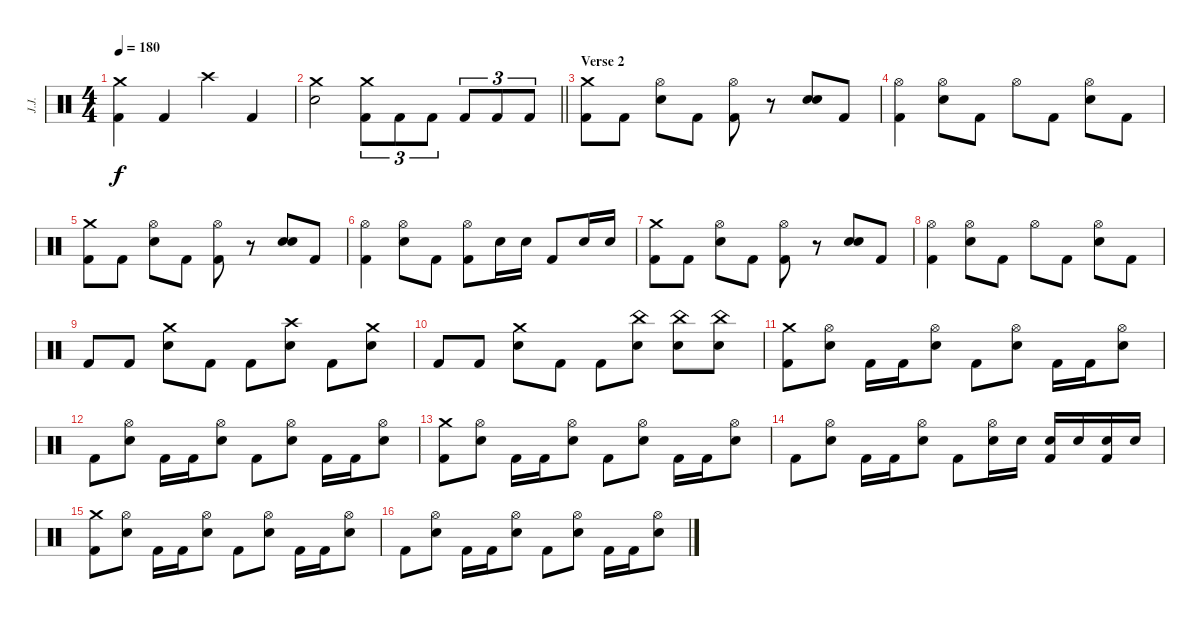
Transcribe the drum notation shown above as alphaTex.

\track ("J.J." "J.J.") {instrument percussion}
\staff {score}
\articulation defaults
\ts (4 4)
\tempo 180
\clef neutral
\ks c
("Crash medium (hit)" "Kick (hit) 2").4{dy f} "Kick (hit) 2".4 "Crash high (hit)".4 "Kick (hit) 2".4 |
\barLineRight lightlight
("Crash medium (hit)" "Electric Snare (hit)").2 ("Crash medium (hit)" "Kick (hit) 2").8{tu (3 2)} "Kick (hit) 2".8{tu (3 2)} "Kick (hit) 2".8{tu (3 2)} "Kick (hit) 2".8{tu (3 2)} "Kick (hit) 2".8{tu (3 2)} "Kick (hit) 2".8{tu (3 2)} |
\section ("" "Verse 2")
("Crash medium (hit)" "Kick (hit) 2").8 "Kick (hit) 2".8 ("Hi-Hat (open)" "Electric Snare (hit)").8 "Kick (hit) 2".8 ("Hi-Hat (open)" "Kick (hit) 2").8 r.8 ("Electric Snare (hit)" "Electric Snare (hit)").8 "Kick (hit) 2".8 |
("Hi-Hat (open)" "Kick (hit) 2").4 ("Hi-Hat (open)" "Electric Snare (hit)").8 "Kick (hit) 2".8 "Hi-Hat (open)".8 "Kick (hit) 2".8 ("Hi-Hat (open)" "Electric Snare (hit)").8 "Kick (hit) 2".8 |
("Crash medium (hit)" "Kick (hit) 2").8 "Kick (hit) 2".8 ("Hi-Hat (open)" "Electric Snare (hit)").8 "Kick (hit) 2".8 ("Hi-Hat (open)" "Kick (hit) 2").8 r.8 ("Electric Snare (hit)" "Electric Snare (hit)").8 "Kick (hit) 2".8 |
("Hi-Hat (open)" "Kick (hit) 2").4 ("Hi-Hat (open)" "Electric Snare (hit)").8 "Kick (hit) 2".8 ("Hi-Hat (open)" "Kick (hit) 2").8 "Electric Snare (hit)".16 "Electric Snare (hit)".16 "Kick (hit) 2".8 "Electric Snare (hit)".16 "Electric Snare (hit)".16 |
("Crash medium (hit)" "Kick (hit) 2").8 "Kick (hit) 2".8 ("Hi-Hat (open)" "Electric Snare (hit)").8 "Kick (hit) 2".8 ("Hi-Hat (open)" "Kick (hit) 2").8 r.8 ("Electric Snare (hit)" "Electric Snare (hit)").8 "Kick (hit) 2".8 |
("Hi-Hat (open)" "Kick (hit) 2").4 ("Hi-Hat (open)" "Electric Snare (hit)").8 "Kick (hit) 2".8 "Hi-Hat (open)".8 "Kick (hit) 2".8 ("Hi-Hat (open)" "Electric Snare (hit)").8 "Kick (hit) 2".8 |
"Kick (hit) 2".8 "Kick (hit) 2".8 ("Crash medium (hit)" "Electric Snare (hit)").8 "Kick (hit) 2".8 "Kick (hit) 2".8 ("Crash high (hit)" "Electric Snare (hit)").8 "Kick (hit) 2".8 ("Crash medium (hit)" "Electric Snare (hit)").8 |
"Kick (hit) 2".8 "Kick (hit) 2".8 ("Crash medium (hit)" "Electric Snare (hit)").8 "Kick (hit) 2".8 "Kick (hit) 2".8 ("China (hit)" "Electric Snare (hit)").8 ("China (hit)" "Electric Snare (hit)").8 ("China (hit)" "Electric Snare (hit)").8 |
("Crash medium (hit)" "Kick (hit) 2").8 ("Hi-Hat (open)" "Electric Snare (hit)").8 "Kick (hit) 2".16 "Kick (hit) 2".16 ("Hi-Hat (open)" "Electric Snare (hit)").8 "Kick (hit) 2".8 ("Hi-Hat (open)" "Electric Snare (hit)").8 "Kick (hit) 2".16 "Kick (hit) 2".16 ("Hi-Hat (open)" "Electric Snare (hit)").8 |
"Kick (hit) 2".8 ("Hi-Hat (open)" "Electric Snare (hit)").8 "Kick (hit) 2".16 "Kick (hit) 2".16 ("Hi-Hat (open)" "Electric Snare (hit)").8 "Kick (hit) 2".8 ("Hi-Hat (open)" "Electric Snare (hit)").8 "Kick (hit) 2".16 "Kick (hit) 2".16 ("Hi-Hat (open)" "Electric Snare (hit)").8 |
("Crash medium (hit)" "Kick (hit) 2").8 ("Hi-Hat (open)" "Electric Snare (hit)").8 "Kick (hit) 2".16 "Kick (hit) 2".16 ("Hi-Hat (open)" "Electric Snare (hit)").8 "Kick (hit) 2".8 ("Hi-Hat (open)" "Electric Snare (hit)").8 "Kick (hit) 2".16 "Kick (hit) 2".16 ("Hi-Hat (open)" "Electric Snare (hit)").8 |
"Kick (hit) 2".8 ("Hi-Hat (open)" "Electric Snare (hit)").8 "Kick (hit) 2".16 "Kick (hit) 2".16 ("Hi-Hat (open)" "Electric Snare (hit)").8 "Kick (hit) 2".8 ("Hi-Hat (open)" "Electric Snare (hit)").16 "Electric Snare (hit)".16 ("Electric Snare (hit)" "Kick (hit) 2").16 "Electric Snare (hit)".16 ("Electric Snare (hit)" "Kick (hit) 2").16 "Electric Snare (hit)".16 |
("Crash medium (hit)" "Kick (hit) 2").8 ("Hi-Hat (open)" "Electric Snare (hit)").8 "Kick (hit) 2".16 "Kick (hit) 2".16 ("Hi-Hat (open)" "Electric Snare (hit)").8 "Kick (hit) 2".8 ("Hi-Hat (open)" "Electric Snare (hit)").8 "Kick (hit) 2".16 "Kick (hit) 2".16 ("Hi-Hat (open)" "Electric Snare (hit)").8 |
"Kick (hit) 2".8 ("Hi-Hat (open)" "Electric Snare (hit)").8 "Kick (hit) 2".16 "Kick (hit) 2".16 ("Hi-Hat (open)" "Electric Snare (hit)").8 "Kick (hit) 2".8 ("Hi-Hat (open)" "Electric Snare (hit)").8 "Kick (hit) 2".16 "Kick (hit) 2".16 ("Hi-Hat (open)" "Electric Snare (hit)").8
